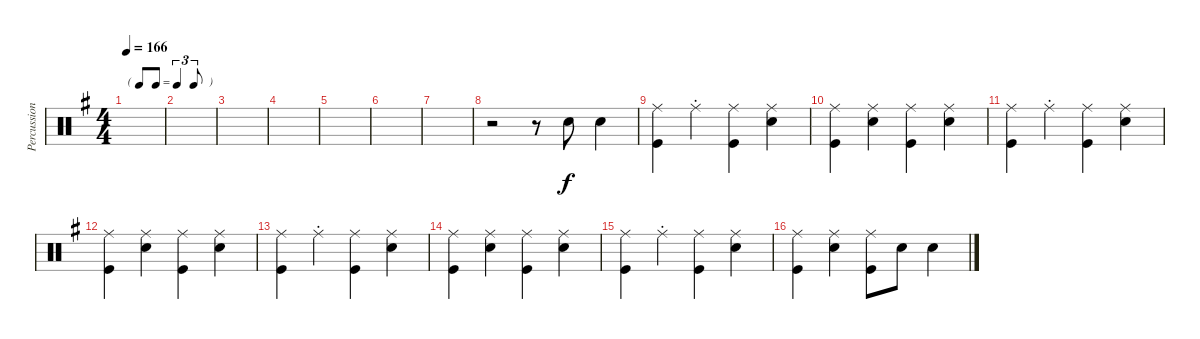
\track ("Percussion" "Percussion") {instrument percussion}
\staff {score}
\articulation defaults
\ts (4 4)
\tf triplet8th
\tempo 166
\clef neutral
\ks g
|
|
|
|
|
|
|
r.2 r.8 "Snare (hit) 2".8 "Snare (hit) 2".4 |
("Ride (middle)" "Kick (hit)").4 "Ride (middle)"{st}.4 ("Ride (middle)" "Kick (hit)").4 ("Ride (middle)" "Snare (hit) 2").4 |
("Ride (middle)" "Kick (hit)").4 ("Ride (middle)" "Snare (hit) 2").4 ("Ride (middle)" "Kick (hit)").4 ("Ride (middle)" "Snare (hit) 2").4 |
("Ride (middle)" "Kick (hit)").4 "Ride (middle)"{st}.4 ("Ride (middle)" "Kick (hit)").4 ("Ride (middle)" "Snare (hit) 2").4 |
("Ride (middle)" "Kick (hit)").4 ("Ride (middle)" "Snare (hit) 2").4 ("Ride (middle)" "Kick (hit)").4 ("Ride (middle)" "Snare (hit) 2").4 |
("Ride (middle)" "Kick (hit)").4 "Ride (middle)"{st}.4 ("Ride (middle)" "Kick (hit)").4 ("Ride (middle)" "Snare (hit) 2").4 |
("Ride (middle)" "Kick (hit)").4 ("Ride (middle)" "Snare (hit) 2").4 ("Ride (middle)" "Kick (hit)").4 ("Ride (middle)" "Snare (hit) 2").4 |
("Ride (middle)" "Kick (hit)").4 "Ride (middle)"{st}.4 ("Ride (middle)" "Kick (hit)").4 ("Ride (middle)" "Snare (hit) 2").4 |
("Ride (middle)" "Kick (hit)").4 ("Ride (middle)" "Snare (hit) 2").4 ("Ride (middle)" "Kick (hit)").8 "Snare (hit) 2".8 "Snare (hit) 2".4
